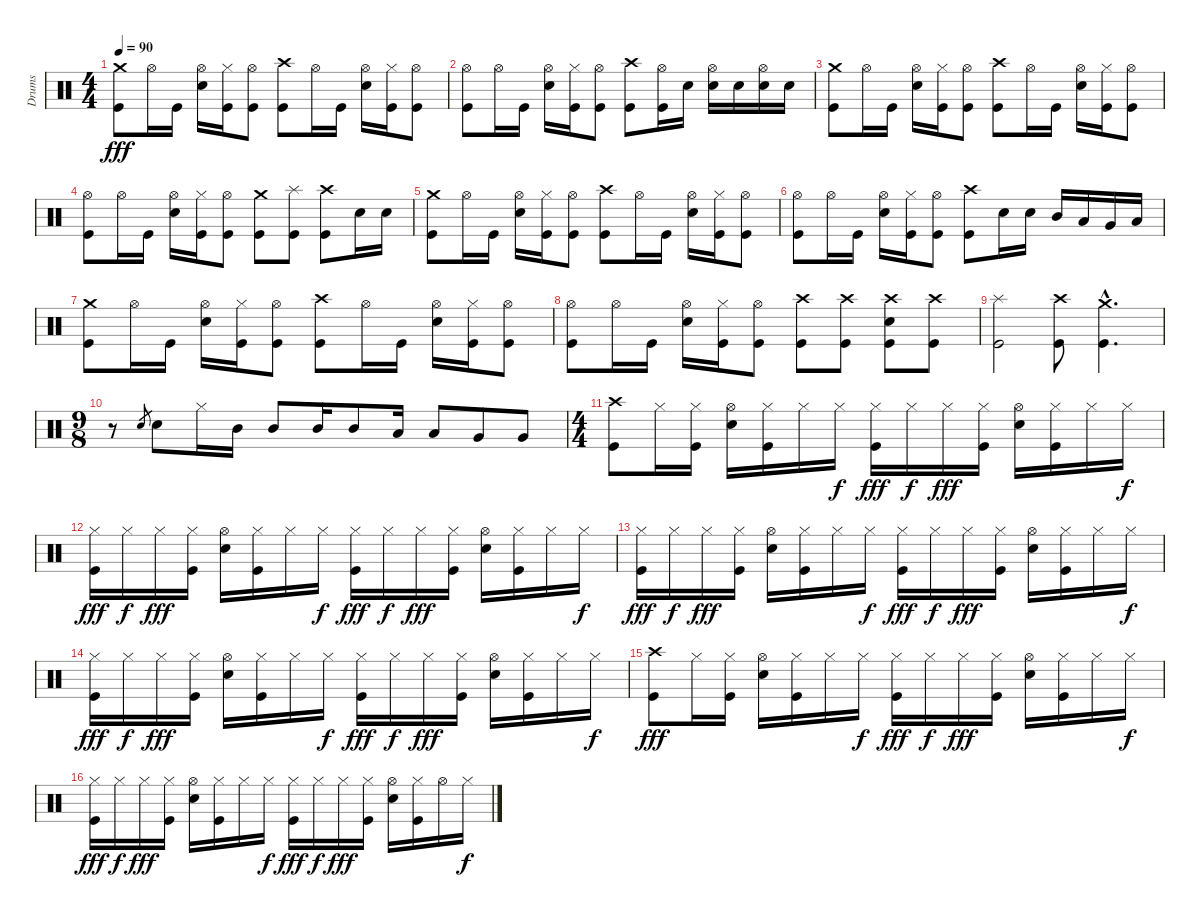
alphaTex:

\track ("Drums" "Drums") {instrument percussion}
\staff {score}
\articulation defaults
\ts (4 4)
\tempo 90
\clef neutral
\ks c
("Crash medium (hit)" "Kick (hit)").8{dy fff} "Hi-Hat (open)".16 "Kick (hit)".16 ("Hi-Hat (open)" "Snare (hit) 2").16 ("Hi-Hat (closed)" "Kick (hit)").16 ("Hi-Hat (open)" "Kick (hit)").8 ("Crash high (hit)" "Kick (hit)").8 "Hi-Hat (open)".16 "Kick (hit)".16 ("Hi-Hat (open)" "Snare (hit) 2").16 ("Hi-Hat (closed)" "Kick (hit)").16 ("Hi-Hat (open)" "Kick (hit)").8 |
("Hi-Hat (open)" "Kick (hit)").8 "Hi-Hat (open)".16 "Kick (hit)".16 ("Hi-Hat (open)" "Snare (hit) 2").16 ("Hi-Hat (closed)" "Kick (hit)").16 ("Hi-Hat (open)" "Kick (hit)").8 ("Crash high (hit)" "Kick (hit)").8 ("Hi-Hat (open)" "Kick (hit)").16 "Snare (hit) 2".16 ("Hi-Hat (open)" "Snare (hit) 2").16 "Snare (hit) 2".16 ("Hi-Hat (open)" "Snare (hit) 2").16 "Snare (hit) 2".16 |
("Crash medium (hit)" "Kick (hit)").8 "Hi-Hat (open)".16 "Kick (hit)".16 ("Hi-Hat (open)" "Snare (hit) 2").16 ("Hi-Hat (closed)" "Kick (hit)").16 ("Hi-Hat (open)" "Kick (hit)").8 ("Crash high (hit)" "Kick (hit)").8 "Hi-Hat (open)".16 "Kick (hit)".16 ("Hi-Hat (open)" "Snare (hit) 2").16 ("Hi-Hat (closed)" "Kick (hit)").16 ("Hi-Hat (open)" "Kick (hit)").8 |
("Hi-Hat (open)" "Kick (hit)").8 "Hi-Hat (open)".16 "Kick (hit)".16 ("Hi-Hat (open)" "Snare (hit) 2").16 ("Hi-Hat (closed)" "Kick (hit)").16 ("Hi-Hat (open)" "Kick (hit)").8 ("Crash medium (hit)" "Kick (hit)").8 ("Splash (hit)" "Kick (hit)").8 ("Crash high (hit)" "Kick (hit)").8 "Snare (hit) 2".16 "Snare (hit) 2".16 |
("Crash medium (hit)" "Kick (hit)").8 "Hi-Hat (open)".16 "Kick (hit)".16 ("Hi-Hat (open)" "Snare (hit) 2").16 ("Hi-Hat (closed)" "Kick (hit)").16 ("Hi-Hat (open)" "Kick (hit)").8 ("Crash high (hit)" "Kick (hit)").8 "Hi-Hat (open)".16 "Kick (hit)".16 ("Hi-Hat (open)" "Snare (hit) 2").16 ("Hi-Hat (closed)" "Kick (hit)").16 ("Hi-Hat (open)" "Kick (hit)").8 |
("Hi-Hat (open)" "Kick (hit)").8 "Hi-Hat (open)".16 "Kick (hit)".16 ("Hi-Hat (open)" "Snare (hit) 2").16 ("Hi-Hat (closed)" "Kick (hit)").16 ("Hi-Hat (open)" "Kick (hit)").8 ("Crash high (hit)" "Kick (hit)").8 "Snare (hit) 2".16 "Snare (hit) 2".16 "Mid Tom (hit)".16 "Low Tom (hit)".16 "Very Low Tom (hit)".16 "Low Floor Tom (hit)".16 |
("Crash medium (hit)" "Kick (hit)").8 "Hi-Hat (open)".16 "Kick (hit)".16 ("Hi-Hat (open)" "Snare (hit) 2").16 ("Hi-Hat (closed)" "Kick (hit)").16 ("Hi-Hat (open)" "Kick (hit)").8 ("Crash high (hit)" "Kick (hit)").8 "Hi-Hat (open)".16 "Kick (hit)".16 ("Hi-Hat (open)" "Snare (hit) 2").16 ("Hi-Hat (closed)" "Kick (hit)").16 ("Hi-Hat (open)" "Kick (hit)").8 |
("Hi-Hat (open)" "Kick (hit)").8 "Hi-Hat (open)".16 "Kick (hit)".16 ("Hi-Hat (open)" "Snare (hit) 2").16 ("Hi-Hat (closed)" "Kick (hit)").16 ("Hi-Hat (open)" "Kick (hit)").8 ("Crash high (hit)" "Kick (hit)").8 ("Crash high (hit)" "Kick (hit)").8 ("Crash high (hit)" "Snare (hit) 2" "Kick (hit)").8 ("Crash high (hit)" "Kick (hit)").8 |
("Splash (hit)" "Kick (hit)").2 ("Crash high (hit)" "Kick (hit)").8 ("Crash medium (hit)"{hac} "Kick (hit)"{hac}).4{d} |
\ts (9 8)
r.8 "Snare (hit) 2".8{gr} "Snare (hit) 2".8 "Hi-Hat (closed)".16 "Mid Tom (hit)".16 "Mid Tom (hit)".8 "Mid Tom (hit)".16 "Mid Tom (hit)".8 "Low Tom (hit)".16 "Low Tom (hit)".8 "Very Low Tom (hit)".8 "Very Low Tom (hit)".8 |
\ts (4 4)
("Crash high (hit)" "Kick (hit)").8 "Hi-Hat (closed)".16 ("Hi-Hat (closed)" "Kick (hit)").16 ("Hi-Hat (open)" "Snare (hit) 2").16 ("Hi-Hat (closed)" "Kick (hit)").16 "Hi-Hat (closed)".16 "Hi-Hat (closed)".16{dy f} ("Hi-Hat (closed)" "Kick (hit)").16{dy fff} "Hi-Hat (closed)".16{dy f} "Hi-Hat (closed)".16{dy fff} ("Hi-Hat (closed)" "Kick (hit)").16 ("Hi-Hat (open)" "Snare (hit) 2").16 ("Hi-Hat (closed)" "Kick (hit)").16 "Hi-Hat (closed)".16 "Hi-Hat (closed)".16{dy f} |
("Hi-Hat (closed)" "Kick (hit)").16{dy fff} "Hi-Hat (closed)".16{dy f} "Hi-Hat (closed)".16{dy fff} ("Hi-Hat (closed)" "Kick (hit)").16 ("Hi-Hat (open)" "Snare (hit) 2").16 ("Hi-Hat (closed)" "Kick (hit)").16 "Hi-Hat (closed)".16 "Hi-Hat (closed)".16{dy f} ("Hi-Hat (closed)" "Kick (hit)").16{dy fff} "Hi-Hat (closed)".16{dy f} "Hi-Hat (closed)".16{dy fff} ("Hi-Hat (closed)" "Kick (hit)").16 ("Hi-Hat (open)" "Snare (hit) 2").16 ("Hi-Hat (closed)" "Kick (hit)").16 "Hi-Hat (closed)".16 "Hi-Hat (closed)".16{dy f} |
("Hi-Hat (closed)" "Kick (hit)").16{dy fff} "Hi-Hat (closed)".16{dy f} "Hi-Hat (closed)".16{dy fff} ("Hi-Hat (closed)" "Kick (hit)").16 ("Hi-Hat (open)" "Snare (hit) 2").16 ("Hi-Hat (closed)" "Kick (hit)").16 "Hi-Hat (closed)".16 "Hi-Hat (closed)".16{dy f} ("Hi-Hat (closed)" "Kick (hit)").16{dy fff} "Hi-Hat (closed)".16{dy f} "Hi-Hat (closed)".16{dy fff} ("Hi-Hat (closed)" "Kick (hit)").16 ("Hi-Hat (open)" "Snare (hit) 2").16 ("Hi-Hat (closed)" "Kick (hit)").16 "Hi-Hat (closed)".16 "Hi-Hat (closed)".16{dy f} |
("Hi-Hat (closed)" "Kick (hit)").16{dy fff} "Hi-Hat (closed)".16{dy f} "Hi-Hat (closed)".16{dy fff} ("Hi-Hat (closed)" "Kick (hit)").16 ("Hi-Hat (open)" "Snare (hit) 2").16 ("Hi-Hat (closed)" "Kick (hit)").16 "Hi-Hat (closed)".16 "Hi-Hat (closed)".16{dy f} ("Hi-Hat (closed)" "Kick (hit)").16{dy fff} "Hi-Hat (closed)".16{dy f} "Hi-Hat (closed)".16{dy fff} ("Hi-Hat (closed)" "Kick (hit)").16 ("Hi-Hat (open)" "Snare (hit) 2").16 ("Hi-Hat (closed)" "Kick (hit)").16 "Hi-Hat (closed)".16 "Hi-Hat (closed)".16{dy f} |
("Crash high (hit)" "Kick (hit)").8{dy fff} "Hi-Hat (closed)".16 ("Hi-Hat (closed)" "Kick (hit)").16 ("Hi-Hat (open)" "Snare (hit) 2").16 ("Hi-Hat (closed)" "Kick (hit)").16 "Hi-Hat (closed)".16 "Hi-Hat (closed)".16{dy f} ("Hi-Hat (closed)" "Kick (hit)").16{dy fff} "Hi-Hat (closed)".16{dy f} "Hi-Hat (closed)".16{dy fff} ("Hi-Hat (closed)" "Kick (hit)").16 ("Hi-Hat (open)" "Snare (hit) 2").16 ("Hi-Hat (closed)" "Kick (hit)").16 "Hi-Hat (closed)".16 "Hi-Hat (closed)".16{dy f} |
("Hi-Hat (closed)" "Kick (hit)").16{dy fff} "Hi-Hat (closed)".16{dy f} "Hi-Hat (closed)".16{dy fff} ("Hi-Hat (closed)" "Kick (hit)").16 ("Hi-Hat (open)" "Snare (hit) 2").16 ("Hi-Hat (closed)" "Kick (hit)").16 "Hi-Hat (closed)".16 "Hi-Hat (closed)".16{dy f} ("Hi-Hat (closed)" "Kick (hit)").16{dy fff} "Hi-Hat (closed)".16{dy f} "Hi-Hat (closed)".16{dy fff} ("Hi-Hat (closed)" "Kick (hit)").16 ("Hi-Hat (open)" "Snare (hit) 2").16 ("Hi-Hat (closed)" "Kick (hit)").16 "Hi-Hat (open)".16 "Hi-Hat (closed)".16{dy f}
